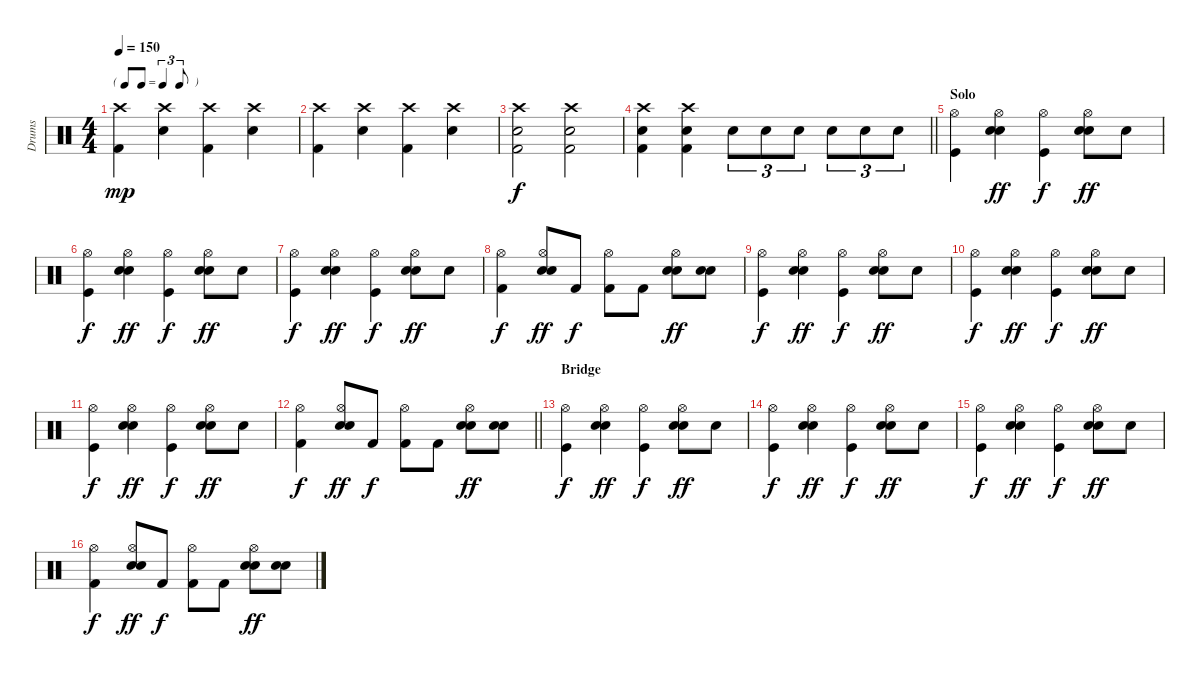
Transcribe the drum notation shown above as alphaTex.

\track ("Drums" "Drums") {instrument percussion}
\staff {score}
\articulation defaults
\ts (4 4)
\tf triplet8th
\tempo 150
\clef neutral
\ks c
("Crash high (hit)" "Kick (hit) 2").4{dy mp} ("Crash high (hit)" "Snare (hit) 2").4 ("Crash high (hit)" "Kick (hit) 2").4 ("Crash high (hit)" "Snare (hit) 2").4 |
("Crash high (hit)" "Kick (hit) 2").4 ("Crash high (hit)" "Snare (hit) 2").4 ("Crash high (hit)" "Kick (hit) 2").4 ("Crash high (hit)" "Snare (hit) 2").4 |
("Crash high (hit)" "Snare (hit) 2" "Kick (hit) 2").2{dy f} ("Crash high (hit)" "Snare (hit) 2" "Kick (hit) 2").2 |
\barLineRight lightlight
("Crash high (hit)" "Snare (hit) 2" "Kick (hit) 2").4 ("Crash high (hit)" "Snare (hit) 2" "Kick (hit) 2").4 "Snare (hit) 2".8{tu (3 2)} "Snare (hit) 2".8{tu (3 2)} "Snare (hit) 2".8{tu (3 2)} "Snare (hit) 2".8{tu (3 2)} "Snare (hit) 2".8{tu (3 2)} "Snare (hit) 2".8{tu (3 2)} |
\section ("" "Solo")
("Hi-Hat (open)" "Kick (hit)").4 ("Hand Clap (hit)" "Hi-Hat (open)" "Snare (hit) 2").4{dy ff} ("Hi-Hat (open)" "Kick (hit)").4{dy f} ("Hand Clap (hit)" "Hi-Hat (open)" "Snare (hit) 2").8{dy ff} "Hand Clap (hit)".8 |
("Hi-Hat (open)" "Kick (hit)").4{dy f} ("Hand Clap (hit)" "Hi-Hat (open)" "Snare (hit) 2").4{dy ff} ("Hi-Hat (open)" "Kick (hit)").4{dy f} ("Hand Clap (hit)" "Hi-Hat (open)" "Snare (hit) 2").8{dy ff} "Hand Clap (hit)".8 |
("Hi-Hat (open)" "Kick (hit)").4{dy f} ("Hand Clap (hit)" "Hi-Hat (open)" "Snare (hit) 2").4{dy ff} ("Hi-Hat (open)" "Kick (hit)").4{dy f} ("Hand Clap (hit)" "Hi-Hat (open)" "Snare (hit) 2").8{dy ff} "Hand Clap (hit)".8 |
("Hi-Hat (open)" "Kick (hit) 2").4{dy f} ("Hand Clap (hit)" "Hi-Hat (open)" "Snare (hit) 2").8{dy ff} "Kick (hit) 2".8{dy f} ("Hi-Hat (open)" "Kick (hit) 2").8 "Kick (hit) 2".8 ("Hand Clap (hit)" "Hi-Hat (open)" "Snare (hit) 2").8{dy ff} ("Hand Clap (hit)" "Snare (hit) 2").8 |
("Hi-Hat (open)" "Kick (hit)").4{dy f} ("Hand Clap (hit)" "Hi-Hat (open)" "Snare (hit) 2").4{dy ff} ("Hi-Hat (open)" "Kick (hit)").4{dy f} ("Hand Clap (hit)" "Hi-Hat (open)" "Snare (hit) 2").8{dy ff} "Hand Clap (hit)".8 |
("Hi-Hat (open)" "Kick (hit)").4{dy f} ("Hand Clap (hit)" "Hi-Hat (open)" "Snare (hit) 2").4{dy ff} ("Hi-Hat (open)" "Kick (hit)").4{dy f} ("Hand Clap (hit)" "Hi-Hat (open)" "Snare (hit) 2").8{dy ff} "Hand Clap (hit)".8 |
("Hi-Hat (open)" "Kick (hit)").4{dy f} ("Hand Clap (hit)" "Hi-Hat (open)" "Snare (hit) 2").4{dy ff} ("Hi-Hat (open)" "Kick (hit)").4{dy f} ("Hand Clap (hit)" "Hi-Hat (open)" "Snare (hit) 2").8{dy ff} "Hand Clap (hit)".8 |
\barLineRight lightlight
("Hi-Hat (open)" "Kick (hit) 2").4{dy f} ("Hand Clap (hit)" "Hi-Hat (open)" "Snare (hit) 2").8{dy ff} "Kick (hit) 2".8{dy f} ("Hi-Hat (open)" "Kick (hit) 2").8 "Kick (hit) 2".8 ("Hand Clap (hit)" "Hi-Hat (open)" "Snare (hit) 2").8{dy ff} ("Hand Clap (hit)" "Snare (hit) 2").8 |
\section ("" "Bridge")
("Hi-Hat (open)" "Kick (hit)").4{dy f} ("Hand Clap (hit)" "Hi-Hat (open)" "Snare (hit) 2").4{dy ff} ("Hi-Hat (open)" "Kick (hit)").4{dy f} ("Hand Clap (hit)" "Hi-Hat (open)" "Snare (hit) 2").8{dy ff} "Hand Clap (hit)".8 |
("Hi-Hat (open)" "Kick (hit)").4{dy f} ("Hand Clap (hit)" "Hi-Hat (open)" "Snare (hit) 2").4{dy ff} ("Hi-Hat (open)" "Kick (hit)").4{dy f} ("Hand Clap (hit)" "Hi-Hat (open)" "Snare (hit) 2").8{dy ff} "Hand Clap (hit)".8 |
("Hi-Hat (open)" "Kick (hit)").4{dy f} ("Hand Clap (hit)" "Hi-Hat (open)" "Snare (hit) 2").4{dy ff} ("Hi-Hat (open)" "Kick (hit)").4{dy f} ("Hand Clap (hit)" "Hi-Hat (open)" "Snare (hit) 2").8{dy ff} "Hand Clap (hit)".8 |
("Hi-Hat (open)" "Kick (hit) 2").4{dy f} ("Hand Clap (hit)" "Hi-Hat (open)" "Snare (hit) 2").8{dy ff} "Kick (hit) 2".8{dy f} ("Hi-Hat (open)" "Kick (hit) 2").8 "Kick (hit) 2".8 ("Hand Clap (hit)" "Hi-Hat (open)" "Snare (hit) 2").8{dy ff} ("Hand Clap (hit)" "Snare (hit) 2").8
